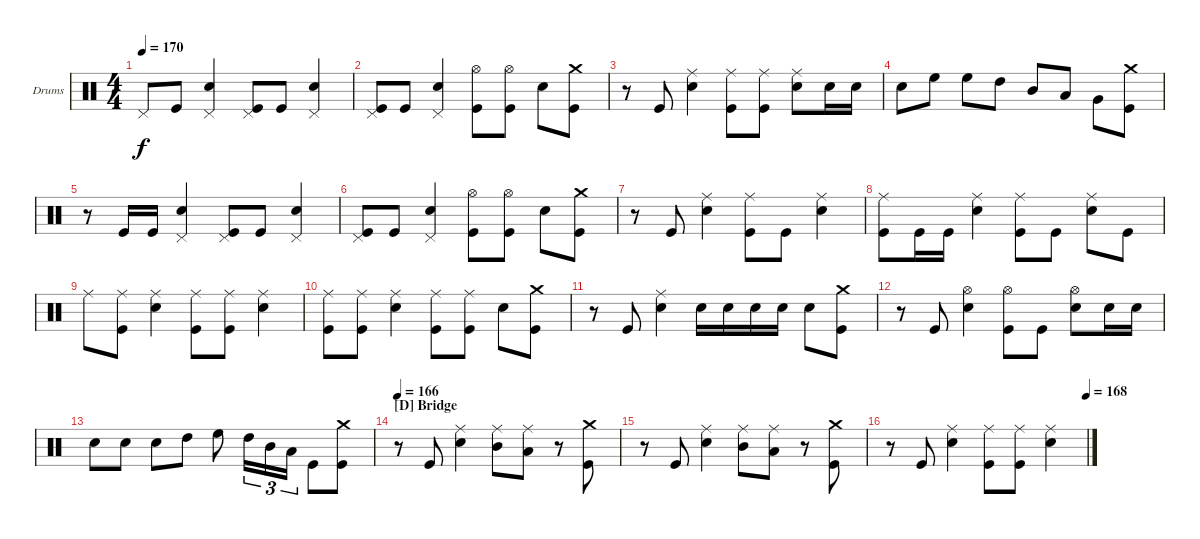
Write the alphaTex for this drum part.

\bracketExtendMode groupsimilarinstruments
\firstSystemTrackNameOrientation horizontal
\otherSystemsTrackNameOrientation horizontal
\track ("Vinny Appice" "Drums") {instrument percussion}
\staff {score}
\articulation defaults
\ts (4 4)
\tempo 170
\clef neutral
\ks c "Pedal Hi-Hat (hit)".8{dy f} "Kick (hit)".8
("Pedal Hi-Hat (hit)" "Snare (hit) 2").4 ("Pedal Hi-Hat (hit)" "Kick (hit)").8 "Kick (hit)".8 ("Pedal Hi-Hat (hit)" "Snare (hit) 2").4 |
("Pedal Hi-Hat (hit)" "Kick (hit)").8 "Kick (hit)".8 ("Pedal Hi-Hat (hit)" "Snare (hit) 2").4 ("Hi-Hat (open)" "Kick (hit)").8 ("Hi-Hat (open)" "Kick (hit)").8 "Snare (hit) 2".8 ("Crash medium (hit)" "Kick (hit)").8 |
r.8 "Kick (hit)".8 ("Ride (middle)" "Snare (hit) 2").4 ("Ride (middle)" "Kick (hit)").8 ("Ride (middle)" "Kick (hit)").8 ("Ride (middle)" "Snare (hit) 2").8 "Snare (hit) 2".16 "Snare (hit) 2".16 |
"Snare (hit) 2".8 "High Floor Tom (hit)".8 "High Floor Tom (hit)".8 "High Tom (hit)".8 "Mid Tom (hit)".8 "Low Tom (hit)".8 "Very Low Tom (hit)".8 ("Crash medium (hit)" "Kick (hit)").8 |
r.8 "Kick (hit)".16 "Kick (hit)".16 ("Pedal Hi-Hat (hit)" "Snare (hit) 2").4 ("Pedal Hi-Hat (hit)" "Kick (hit)").8 "Kick (hit)".8 ("Pedal Hi-Hat (hit)" "Snare (hit) 2").4 |
("Pedal Hi-Hat (hit)" "Kick (hit)").8 "Kick (hit)".8 ("Pedal Hi-Hat (hit)" "Snare (hit) 2").4 ("Hi-Hat (open)" "Kick (hit)").8 ("Hi-Hat (open)" "Kick (hit)").8 "Snare (hit) 2".8 ("Crash medium (hit)" "Kick (hit)").8 |
r.8 "Kick (hit)".8 ("Ride (middle)" "Snare (hit) 2").4 ("Ride (middle)" "Kick (hit)").8 "Kick (hit)".8 ("Ride (middle)" "Snare (hit) 2").4 |
("Kick (hit)" "Ride (middle)").8 "Kick (hit)".16 "Kick (hit)".16 ("Ride (middle)" "Snare (hit) 2").4 ("Ride (middle)" "Kick (hit)").8 "Kick (hit)".8 ("Ride (middle)" "Snare (hit) 2").8 "Kick (hit)".8 |
"Ride (middle)".8 ("Ride (middle)" "Kick (hit)").8 ("Ride (middle)" "Snare (hit) 2").4 ("Ride (middle)" "Kick (hit)").8 ("Ride (middle)" "Kick (hit)").8 ("Ride (middle)" "Snare (hit) 2").4 |
("Ride (middle)" "Kick (hit)").8 ("Ride (middle)" "Kick (hit)").8 ("Ride (middle)" "Snare (hit) 2").4 ("Ride (middle)" "Kick (hit)").8 ("Ride (middle)" "Kick (hit)").8 "Snare (hit) 2".8 ("Crash medium (hit)" "Kick (hit)").8 |
r.8 "Kick (hit)".8 ("Ride (middle)" "Snare (hit) 2").4 "Snare (hit) 2".16 "Snare (hit) 2".16 "Snare (hit) 2".16 "Snare (hit) 2".16 "Snare (hit) 2".8 ("Crash medium (hit)" "Kick (hit)").8 |
r.8 "Kick (hit)".8 ("Hi-Hat (open)" "Snare (hit) 2").4 ("Hi-Hat (open)" "Kick (hit)").8 "Kick (hit)".8 ("Hi-Hat (open)" "Snare (hit) 2").8 "Snare (hit) 2".16 "Snare (hit) 2".16 |
"Snare (hit) 2".8 "Snare (hit) 2".8 "Snare (hit) 2".8 "High Tom (hit)".8 "High Floor Tom (hit)".8 "High Tom (hit)".16{tu (3 2)} "Mid Tom (hit)".16{tu (3 2)} "Low Tom (hit)".16{tu (3 2)} "Kick (hit)".8 ("Crash medium (hit)" "Kick (hit)").8 |
\section ("D" "Bridge")
\tempo 166
r.8 "Kick (hit)".8 ("Ride (middle)" "Snare (hit) 2").4 ("Ride (middle)" "Mid Tom (hit)").8 ("Ride (middle)" "Low Tom (hit)").8 r.8 ("Crash medium (hit)" "Kick (hit)").8 |
r.8 "Kick (hit)".8 ("Ride (middle)" "Snare (hit) 2").4 ("Ride (middle)" "Mid Tom (hit)").8 ("Ride (middle)" "Low Tom (hit)").8 r.8 ("Crash medium (hit)" "Kick (hit)").8 |
\tempo (168 1)
r.8 "Kick (hit)".8 ("Ride (middle)" "Snare (hit) 2").4 ("Ride (middle)" "Kick (hit)").8 ("Ride (middle)" "Kick (hit)").8 ("Ride (middle)" "Snare (hit) 2").4
